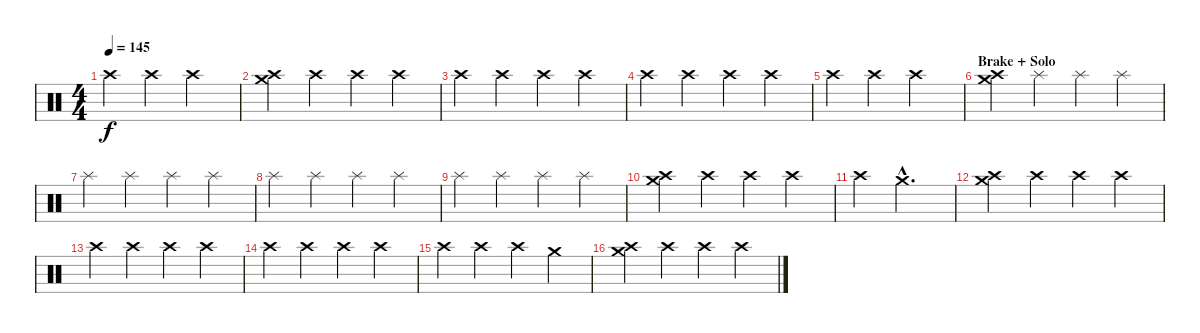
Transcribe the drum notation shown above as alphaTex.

\track "" {instrument percussion}
\staff {score}
\articulation defaults
\ts (4 4)
\tempo 145
\clef neutral
\ks c "Crash high (hit)".4{dy f} "Crash high (hit)".4 "Crash high (hit)".2
|
("Crash medium (hit)" "Crash high (hit)").4 "Crash high (hit)".4 "Crash high (hit)".4 "Crash high (hit)".4 |
"Crash high (hit)".4 "Crash high (hit)".4 "Crash high (hit)".4 "Crash high (hit)".4 |
"Crash high (hit)".4 "Crash high (hit)".4 "Crash high (hit)".4 "Crash high (hit)".4 |
"Crash high (hit)".4 "Crash high (hit)".4 "Crash high (hit)".2 |
\section ("" "Brake + Solo")
("Crash medium (hit)" "Crash high (hit)").4 "Splash (hit)".4 "Splash (hit)".4 "Splash (hit)".4 |
"Splash (hit)".4 "Splash (hit)".4 "Splash (hit)".4 "Splash (hit)".4 |
"Splash (hit)".4 "Splash (hit)".4 "Splash (hit)".4 "Splash (hit)".4 |
"Splash (hit)".4 "Splash (hit)".4 "Splash (hit)".4 "Splash (hit)".4 |
("Crash medium (hit)" "Crash high (hit)").4 "Crash high (hit)".4 "Crash high (hit)".4 "Crash high (hit)".4 |
"Crash high (hit)".4 "Crash medium (hit)"{hac}.2{d} |
("Crash medium (hit)" "Crash high (hit)").4 "Crash high (hit)".4 "Crash high (hit)".4 "Crash high (hit)".4 |
"Crash high (hit)".4 "Crash high (hit)".4 "Crash high (hit)".4 "Crash high (hit)".4 |
"Crash high (hit)".4 "Crash high (hit)".4 "Crash high (hit)".4 "Crash high (hit)".4 |
"Crash high (hit)".4 "Crash high (hit)".4 "Crash high (hit)".4 "Crash medium (hit)".4 |
("Crash medium (hit)" "Crash high (hit)").4 "Crash high (hit)".4 "Crash high (hit)".4 "Crash high (hit)".4
